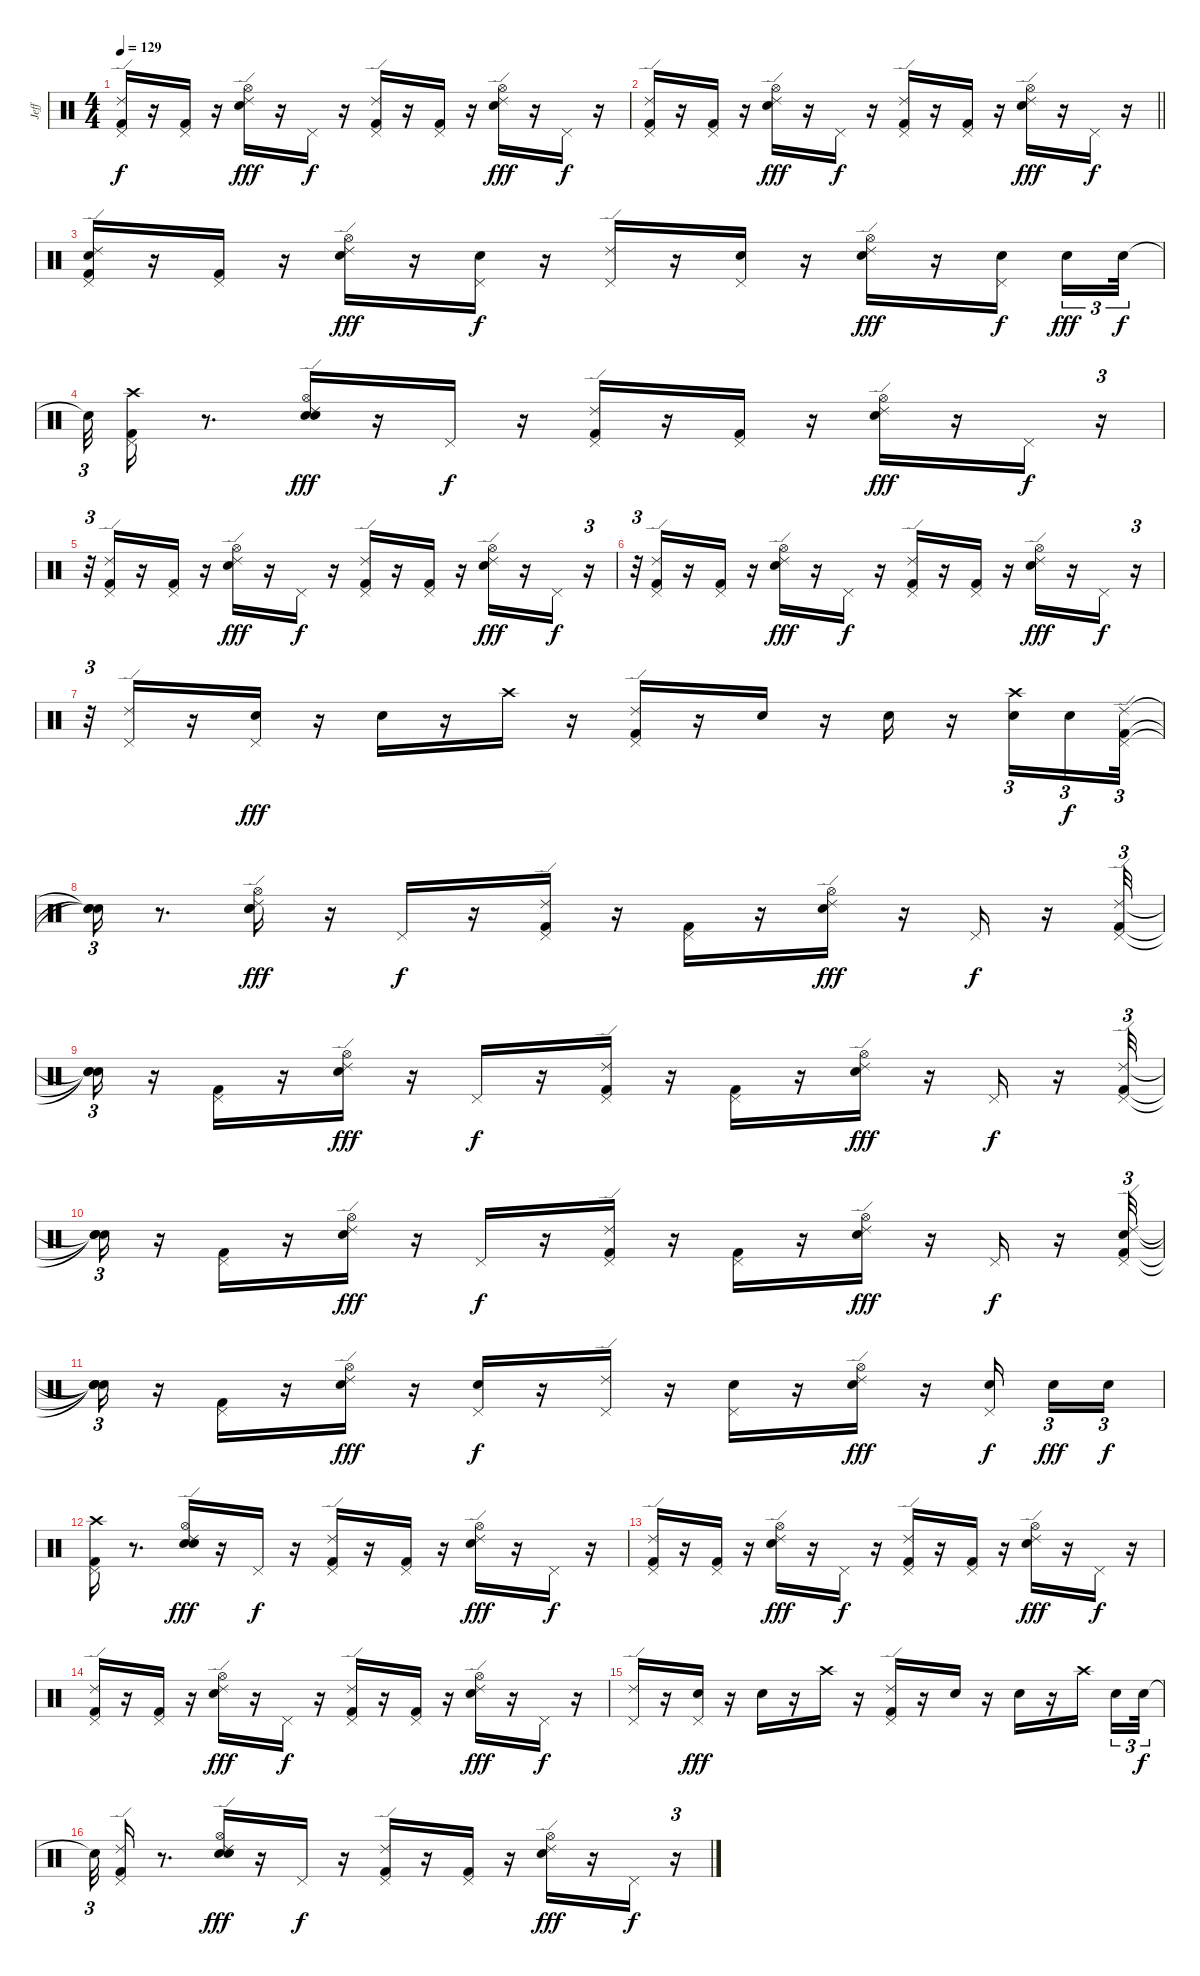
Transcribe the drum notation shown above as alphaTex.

\track ("Jeff" "Jeff") {instrument percussion}
\staff {score}
\articulation defaults
\ts (4 4)
\tempo 129
\clef neutral
\ks c
("Kick (hit) 2" "Pedal Hi-Hat (hit)" "Ride (edge) 2").16{dy f} r.16 ("Kick (hit) 2" "Pedal Hi-Hat (hit)").16 r.16 ("Electric Snare (hit)" "Hi-Hat (open)" "Ride (edge) 2").16{dy fff} r.16 "Pedal Hi-Hat (hit)".16{dy f} r.16 ("Kick (hit) 2" "Pedal Hi-Hat (hit)" "Ride (edge) 2").16 r.16 ("Kick (hit) 2" "Pedal Hi-Hat (hit)").16 r.16 ("Electric Snare (hit)" "Hi-Hat (open)" "Ride (edge) 2").16{dy fff} r.16 "Pedal Hi-Hat (hit)".16{dy f} r.16 |
\barLineRight lightlight
("Kick (hit) 2" "Pedal Hi-Hat (hit)" "Ride (edge) 2").16 r.16 ("Kick (hit) 2" "Pedal Hi-Hat (hit)").16 r.16 ("Electric Snare (hit)" "Hi-Hat (open)" "Ride (edge) 2").16{dy fff} r.16 "Pedal Hi-Hat (hit)".16{dy f} r.16 ("Kick (hit) 2" "Pedal Hi-Hat (hit)" "Ride (edge) 2").16 r.16 ("Kick (hit) 2" "Pedal Hi-Hat (hit)").16 r.16 ("Electric Snare (hit)" "Hi-Hat (open)" "Ride (edge) 2").16{dy fff} r.16 "Pedal Hi-Hat (hit)".16{dy f} r.16 |
("Kick (hit) 2" "Electric Snare (hit)" "Pedal Hi-Hat (hit)" "Ride (edge) 2").16 r.16 ("Kick (hit) 2" "Pedal Hi-Hat (hit)").16 r.16 ("Electric Snare (hit)" "Hi-Hat (open)" "Ride (edge) 2").16{dy fff} r.16 ("Electric Snare (hit)" "Pedal Hi-Hat (hit)").16{dy f} r.16 ("Pedal Hi-Hat (hit)" "Ride (edge) 2").16 r.16 ("Electric Snare (hit)" "Pedal Hi-Hat (hit)").16 r.16 ("Electric Snare (hit)" "Hi-Hat (open)" "Ride (edge) 2").16{dy fff} r.16 ("Electric Snare (hit)" "Pedal Hi-Hat (hit)").16{dy f beam splitsecondary} "Electric Snare (hit)".16{tu (3 2) dy fff} "Electric Snare (hit)".32{tu (3 2) dy f} |
"Snare (hit)"{t}.32{tu (3 2)} ("Kick (hit) 2" "Pedal Hi-Hat (hit)" "Crash high (hit)").16 r.8{d} ("Snare (hit) 2" "Electric Snare (hit)" "Hi-Hat (open)" "Ride (edge) 2").16{dy fff} r.16 "Pedal Hi-Hat (hit)".16{dy f} r.16 ("Kick (hit) 2" "Pedal Hi-Hat (hit)" "Ride (edge) 2").16 r.16 ("Kick (hit) 2" "Pedal Hi-Hat (hit)").16 r.16 ("Electric Snare (hit)" "Hi-Hat (open)" "Ride (edge) 2").16{dy fff} r.16 "Pedal Hi-Hat (hit)".16{dy f} r.16{tu (3 2)} |
r.32{tu (3 2)} ("Kick (hit) 2" "Pedal Hi-Hat (hit)" "Ride (edge) 2").16 r.16 ("Kick (hit) 2" "Pedal Hi-Hat (hit)").16 r.16 ("Electric Snare (hit)" "Hi-Hat (open)" "Ride (edge) 2").16{dy fff} r.16 "Pedal Hi-Hat (hit)".16{dy f} r.16 ("Kick (hit) 2" "Pedal Hi-Hat (hit)" "Ride (edge) 2").16 r.16 ("Kick (hit) 2" "Pedal Hi-Hat (hit)").16 r.16 ("Electric Snare (hit)" "Hi-Hat (open)" "Ride (edge) 2").16{dy fff} r.16 "Pedal Hi-Hat (hit)".16{dy f} r.16{tu (3 2)} |
r.32{tu (3 2)} ("Kick (hit) 2" "Pedal Hi-Hat (hit)" "Ride (edge) 2").16 r.16 ("Kick (hit) 2" "Pedal Hi-Hat (hit)").16 r.16 ("Electric Snare (hit)" "Hi-Hat (open)" "Ride (edge) 2").16{dy fff} r.16 "Pedal Hi-Hat (hit)".16{dy f} r.16 ("Kick (hit) 2" "Pedal Hi-Hat (hit)" "Ride (edge) 2").16 r.16 ("Kick (hit) 2" "Pedal Hi-Hat (hit)").16 r.16 ("Electric Snare (hit)" "Hi-Hat (open)" "Ride (edge) 2").16{dy fff} r.16 "Pedal Hi-Hat (hit)".16{dy f} r.16{tu (3 2)} |
r.32{tu (3 2)} ("Pedal Hi-Hat (hit)" "Ride (edge) 2").16 r.16 ("Electric Snare (hit)" "Pedal Hi-Hat (hit)").16{dy fff} r.16 "Electric Snare (hit)".16 r.16 "Crash high (hit)".16 r.16 ("Kick (hit) 2" "Pedal Hi-Hat (hit)" "Ride (edge) 2").16 r.16 "Electric Snare (hit)".16 r.16 "Electric Snare (hit)".16 r.16 ("Crash high (hit)" "Electric Snare (hit)").16{tu (3 2)} "Electric Snare (hit)".16{tu (3 2) dy f} ("Kick (hit) 2" "Pedal Hi-Hat (hit)" "Ride (edge) 2").32{tu (3 2)} |
("Snare (hit)"{t} "Snare (hit)"{t} "Snare (hit)"{t}).16{tu (3 2)} r.8{d} ("Snare (hit) 2" "Electric Snare (hit)" "Hi-Hat (open)" "Ride (edge) 2").16{dy fff} r.16 "Pedal Hi-Hat (hit)".16{dy f} r.16 ("Kick (hit) 2" "Pedal Hi-Hat (hit)" "Ride (edge) 2").16 r.16 ("Kick (hit) 2" "Pedal Hi-Hat (hit)").16 r.16 ("Electric Snare (hit)" "Hi-Hat (open)" "Ride (edge) 2").16{dy fff} r.16 "Pedal Hi-Hat (hit)".16{dy f} r.16 ("Kick (hit) 2" "Pedal Hi-Hat (hit)" "Ride (edge) 2").32{tu (3 2)} |
("Snare (hit)"{t} "Snare (hit)"{t} "Snare (hit)"{t}).16{tu (3 2)} r.16 ("Kick (hit) 2" "Pedal Hi-Hat (hit)").16 r.16 ("Electric Snare (hit)" "Hi-Hat (open)" "Ride (edge) 2").16{dy fff} r.16 "Pedal Hi-Hat (hit)".16{dy f} r.16 ("Kick (hit) 2" "Pedal Hi-Hat (hit)" "Ride (edge) 2").16 r.16 ("Kick (hit) 2" "Pedal Hi-Hat (hit)").16 r.16 ("Electric Snare (hit)" "Hi-Hat (open)" "Ride (edge) 2").16{dy fff} r.16 "Pedal Hi-Hat (hit)".16{dy f} r.16 ("Kick (hit) 2" "Pedal Hi-Hat (hit)" "Ride (edge) 2").32{tu (3 2)} |
("Snare (hit)"{t} "Snare (hit)"{t} "Snare (hit)"{t}).16{tu (3 2)} r.16 ("Kick (hit) 2" "Pedal Hi-Hat (hit)").16 r.16 ("Electric Snare (hit)" "Hi-Hat (open)" "Ride (edge) 2").16{dy fff} r.16 "Pedal Hi-Hat (hit)".16{dy f} r.16 ("Kick (hit) 2" "Pedal Hi-Hat (hit)" "Ride (edge) 2").16 r.16 ("Kick (hit) 2" "Pedal Hi-Hat (hit)").16 r.16 ("Electric Snare (hit)" "Hi-Hat (open)" "Ride (edge) 2").16{dy fff} r.16 "Pedal Hi-Hat (hit)".16{dy f} r.16 ("Kick (hit) 2" "Electric Snare (hit)" "Pedal Hi-Hat (hit)" "Ride (edge) 2").32{tu (3 2)} |
("Snare (hit)"{t} "Snare (hit)"{t} "Snare (hit)"{t} "Snare (hit)"{t}).16{tu (3 2)} r.16 ("Kick (hit) 2" "Pedal Hi-Hat (hit)").16 r.16 ("Electric Snare (hit)" "Hi-Hat (open)" "Ride (edge) 2").16{dy fff} r.16 ("Electric Snare (hit)" "Pedal Hi-Hat (hit)").16{dy f} r.16 ("Pedal Hi-Hat (hit)" "Ride (edge) 2").16 r.16 ("Electric Snare (hit)" "Pedal Hi-Hat (hit)").16 r.16 ("Electric Snare (hit)" "Hi-Hat (open)" "Ride (edge) 2").16{dy fff} r.16 ("Electric Snare (hit)" "Pedal Hi-Hat (hit)").16{dy f beam splitsecondary} "Electric Snare (hit)".16{tu (3 2) dy fff} "Electric Snare (hit)".16{tu (3 2) dy f} |
("Kick (hit) 2" "Pedal Hi-Hat (hit)" "Crash high (hit)").16 r.8{d} ("Snare (hit) 2" "Electric Snare (hit)" "Hi-Hat (open)" "Ride (edge) 2").16{dy fff} r.16 "Pedal Hi-Hat (hit)".16{dy f} r.16 ("Kick (hit) 2" "Pedal Hi-Hat (hit)" "Ride (edge) 2").16 r.16 ("Kick (hit) 2" "Pedal Hi-Hat (hit)").16 r.16 ("Electric Snare (hit)" "Hi-Hat (open)" "Ride (edge) 2").16{dy fff} r.16 "Pedal Hi-Hat (hit)".16{dy f} r.16 |
("Kick (hit) 2" "Pedal Hi-Hat (hit)" "Ride (edge) 2").16 r.16 ("Kick (hit) 2" "Pedal Hi-Hat (hit)").16 r.16 ("Electric Snare (hit)" "Hi-Hat (open)" "Ride (edge) 2").16{dy fff} r.16 "Pedal Hi-Hat (hit)".16{dy f} r.16 ("Kick (hit) 2" "Pedal Hi-Hat (hit)" "Ride (edge) 2").16 r.16 ("Kick (hit) 2" "Pedal Hi-Hat (hit)").16 r.16 ("Electric Snare (hit)" "Hi-Hat (open)" "Ride (edge) 2").16{dy fff} r.16 "Pedal Hi-Hat (hit)".16{dy f} r.16 |
("Kick (hit) 2" "Pedal Hi-Hat (hit)" "Ride (edge) 2").16 r.16 ("Kick (hit) 2" "Pedal Hi-Hat (hit)").16 r.16 ("Electric Snare (hit)" "Hi-Hat (open)" "Ride (edge) 2").16{dy fff} r.16 "Pedal Hi-Hat (hit)".16{dy f} r.16 ("Kick (hit) 2" "Pedal Hi-Hat (hit)" "Ride (edge) 2").16 r.16 ("Kick (hit) 2" "Pedal Hi-Hat (hit)").16 r.16 ("Electric Snare (hit)" "Hi-Hat (open)" "Ride (edge) 2").16{dy fff} r.16 "Pedal Hi-Hat (hit)".16{dy f} r.16 |
("Pedal Hi-Hat (hit)" "Ride (edge) 2").16 r.16 ("Electric Snare (hit)" "Pedal Hi-Hat (hit)").16{dy fff} r.16 "Electric Snare (hit)".16 r.16 "Crash high (hit)".16 r.16 ("Kick (hit) 2" "Pedal Hi-Hat (hit)" "Ride (edge) 2").16 r.16 "Electric Snare (hit)".16 r.16 "Electric Snare (hit)".16 r.16 "Crash high (hit)".16{beam splitsecondary} "Electric Snare (hit)".16{tu (3 2)} "Electric Snare (hit)".32{tu (3 2) dy f} |
"Snare (hit)"{t}.32{tu (3 2)} ("Kick (hit) 2" "Pedal Hi-Hat (hit)" "Ride (edge) 2").16 r.8{d} ("Snare (hit) 2" "Electric Snare (hit)" "Hi-Hat (open)" "Ride (edge) 2").16{dy fff} r.16 "Pedal Hi-Hat (hit)".16{dy f} r.16 ("Kick (hit) 2" "Pedal Hi-Hat (hit)" "Ride (edge) 2").16 r.16 ("Kick (hit) 2" "Pedal Hi-Hat (hit)").16 r.16 ("Electric Snare (hit)" "Hi-Hat (open)" "Ride (edge) 2").16{dy fff} r.16 "Pedal Hi-Hat (hit)".16{dy f} r.16{tu (3 2)}
